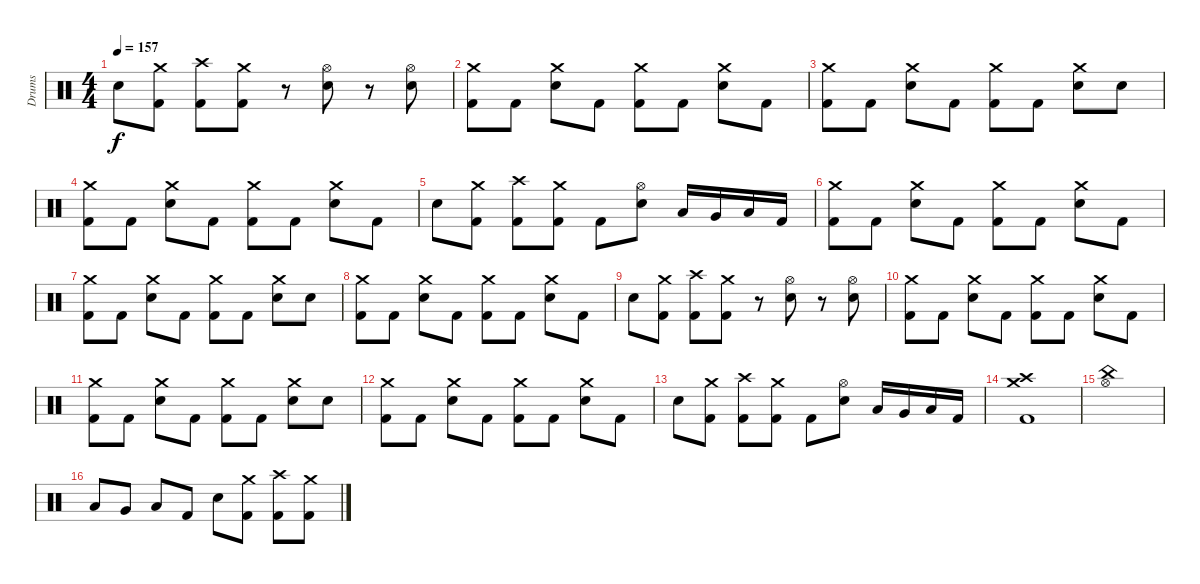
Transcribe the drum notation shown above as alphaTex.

\track ("Drums" "Drums") {instrument percussion}
\staff {score}
\articulation defaults
\ts (4 4)
\tempo 157
\clef neutral
\ks c "Electric Snare (hit)".8{dy f}
("Crash medium (hit)" "Kick (hit) 2").8 ("Crash high (hit)" "Kick (hit) 2").8 ("Crash medium (hit)" "Kick (hit) 2").8 r.8 ("Hi-Hat (open)" "Electric Snare (hit)").8 r.8 ("Hi-Hat (open)" "Electric Snare (hit)").8 |
("Crash medium (hit)" "Kick (hit) 2").8 "Kick (hit) 2".8 ("Crash medium (hit)" "Electric Snare (hit)").8 "Kick (hit) 2".8 ("Crash medium (hit)" "Kick (hit) 2").8 "Kick (hit) 2".8 ("Crash medium (hit)" "Electric Snare (hit)").8 "Kick (hit) 2".8 |
("Crash medium (hit)" "Kick (hit) 2").8 "Kick (hit) 2".8 ("Crash medium (hit)" "Electric Snare (hit)").8 "Kick (hit) 2".8 ("Crash medium (hit)" "Kick (hit) 2").8 "Kick (hit) 2".8 ("Crash medium (hit)" "Electric Snare (hit)").8 "Electric Snare (hit)".8 |
("Crash medium (hit)" "Kick (hit) 2").8 "Kick (hit) 2".8 ("Crash medium (hit)" "Electric Snare (hit)").8 "Kick (hit) 2".8 ("Crash medium (hit)" "Kick (hit) 2").8 "Kick (hit) 2".8 ("Crash medium (hit)" "Electric Snare (hit)").8 "Kick (hit) 2".8 |
"Electric Snare (hit)".8 ("Crash medium (hit)" "Kick (hit) 2").8 ("Crash high (hit)" "Kick (hit) 2").8 ("Crash medium (hit)" "Kick (hit) 2").8 "Kick (hit) 2".8 ("Hi-Hat (open)" "Electric Snare (hit)").8 "Low Tom (hit)".16 "Very Low Tom (hit)".16 "Low Floor Tom (hit)".16 "Kick (hit) 2".16 |
("Crash medium (hit)" "Kick (hit) 2").8 "Kick (hit) 2".8 ("Crash medium (hit)" "Electric Snare (hit)").8 "Kick (hit) 2".8 ("Crash medium (hit)" "Kick (hit) 2").8 "Kick (hit) 2".8 ("Crash medium (hit)" "Electric Snare (hit)").8 "Kick (hit) 2".8 |
("Crash medium (hit)" "Kick (hit) 2").8 "Kick (hit) 2".8 ("Crash medium (hit)" "Electric Snare (hit)").8 "Kick (hit) 2".8 ("Crash medium (hit)" "Kick (hit) 2").8 "Kick (hit) 2".8 ("Crash medium (hit)" "Electric Snare (hit)").8 "Electric Snare (hit)".8 |
("Crash medium (hit)" "Kick (hit) 2").8 "Kick (hit) 2".8 ("Crash medium (hit)" "Electric Snare (hit)").8 "Kick (hit) 2".8 ("Crash medium (hit)" "Kick (hit) 2").8 "Kick (hit) 2".8 ("Crash medium (hit)" "Electric Snare (hit)").8 "Kick (hit) 2".8 |
"Electric Snare (hit)".8 ("Crash medium (hit)" "Kick (hit) 2").8 ("Crash high (hit)" "Kick (hit) 2").8 ("Crash medium (hit)" "Kick (hit) 2").8 r.8 ("Hi-Hat (open)" "Electric Snare (hit)").8 r.8 ("Hi-Hat (open)" "Electric Snare (hit)").8 |
("Crash medium (hit)" "Kick (hit) 2").8 "Kick (hit) 2".8 ("Crash medium (hit)" "Electric Snare (hit)").8 "Kick (hit) 2".8 ("Crash medium (hit)" "Kick (hit) 2").8 "Kick (hit) 2".8 ("Crash medium (hit)" "Electric Snare (hit)").8 "Kick (hit) 2".8 |
("Crash medium (hit)" "Kick (hit) 2").8 "Kick (hit) 2".8 ("Crash medium (hit)" "Electric Snare (hit)").8 "Kick (hit) 2".8 ("Crash medium (hit)" "Kick (hit) 2").8 "Kick (hit) 2".8 ("Crash medium (hit)" "Electric Snare (hit)").8 "Electric Snare (hit)".8 |
("Crash medium (hit)" "Kick (hit) 2").8 "Kick (hit) 2".8 ("Crash medium (hit)" "Electric Snare (hit)").8 "Kick (hit) 2".8 ("Crash medium (hit)" "Kick (hit) 2").8 "Kick (hit) 2".8 ("Crash medium (hit)" "Electric Snare (hit)").8 "Kick (hit) 2".8 |
"Electric Snare (hit)".8 ("Crash medium (hit)" "Kick (hit) 2").8 ("Crash high (hit)" "Kick (hit) 2").8 ("Crash medium (hit)" "Kick (hit) 2").8 "Kick (hit) 2".8 ("Hi-Hat (open)" "Electric Snare (hit)").8 "Low Tom (hit)".16 "Very Low Tom (hit)".16 "Low Floor Tom (hit)".16 "Kick (hit) 2".16 |
("Crash medium (hit)" "Crash high (hit)" "Kick (hit) 2").1 |
("China (hit)" "Hi-Hat (open)").1 |
"Low Tom (hit)".8 "Very Low Tom (hit)".8 "Low Floor Tom (hit)".8 "Kick (hit) 2".8 "Electric Snare (hit)".8 ("Crash medium (hit)" "Kick (hit) 2").8 ("Crash high (hit)" "Kick (hit) 2").8 ("Crash medium (hit)" "Kick (hit) 2").8
